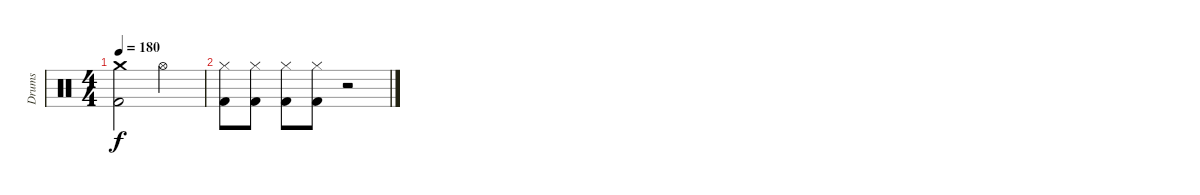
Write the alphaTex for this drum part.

\track ("Drums" "Drums") {instrument percussion}
\staff {score}
\articulation defaults
\ts (4 4)
\tempo 180
\clef neutral
\ks c
("Crash medium (hit)" "Kick (hit) 2").2{dy f} "Hi-Hat (open)".2 |
("Hi-Hat (closed)" "Kick (hit) 2").8 ("Hi-Hat (closed)" "Kick (hit) 2").8 ("Hi-Hat (closed)" "Kick (hit) 2").8 ("Hi-Hat (closed)" "Kick (hit) 2").8 r.2
